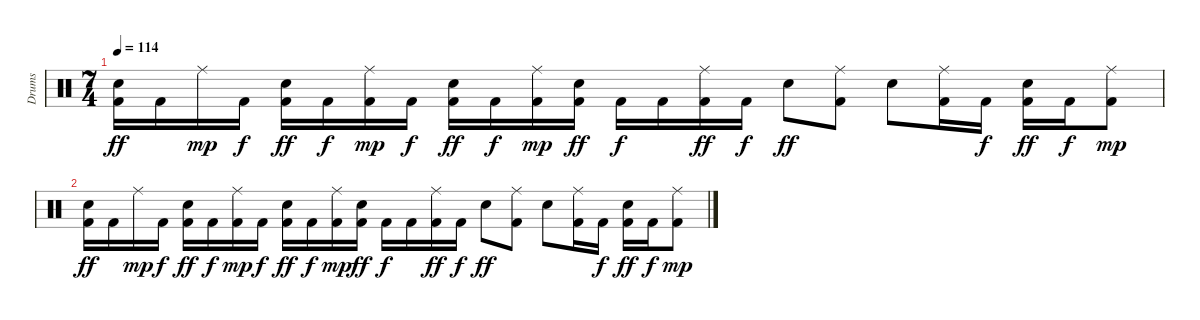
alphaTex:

\track ("Drums" "Drums") {instrument percussion}
\staff {score}
\articulation defaults
\ts (7 4)
\tempo 114
\clef neutral
\ks c
("Snare (hit) 2" "Kick (hit) 2").16{dy ff} "Kick (hit) 2".16 "Ride (middle)".16{dy mp} "Kick (hit) 2".16{dy f} ("Snare (hit) 2" "Kick (hit) 2").16{dy ff} "Kick (hit) 2".16{dy f} ("Ride (middle)" "Kick (hit) 2").16{dy mp} "Kick (hit) 2".16{dy f} ("Snare (hit) 2" "Kick (hit) 2").16{dy ff} "Kick (hit) 2".16{dy f} ("Ride (middle)" "Kick (hit) 2").16{dy mp} ("Snare (hit) 2" "Kick (hit) 2").16{dy ff} "Kick (hit) 2".16{dy f} "Kick (hit) 2".16 ("Ride (middle)" "Kick (hit) 2").16{dy ff} "Kick (hit) 2".16{dy f} "Snare (hit) 2".8{dy ff} ("Ride (middle)" "Kick (hit) 2").8 "Snare (hit) 2".8 ("Ride (middle)" "Kick (hit) 2").16 "Kick (hit) 2".16{dy f} ("Snare (hit) 2" "Kick (hit) 2").16{dy ff} "Kick (hit) 2".16{dy f} ("Ride (middle)" "Kick (hit) 2").8{dy mp} |
("Snare (hit) 2" "Kick (hit) 2").16{dy ff} "Kick (hit) 2".16 "Ride (middle)".16{dy mp} "Kick (hit) 2".16{dy f} ("Snare (hit) 2" "Kick (hit) 2").16{dy ff} "Kick (hit) 2".16{dy f} ("Ride (middle)" "Kick (hit) 2").16{dy mp} "Kick (hit) 2".16{dy f} ("Snare (hit) 2" "Kick (hit) 2").16{dy ff} "Kick (hit) 2".16{dy f} ("Ride (middle)" "Kick (hit) 2").16{dy mp} ("Snare (hit) 2" "Kick (hit) 2").16{dy ff} "Kick (hit) 2".16{dy f} "Kick (hit) 2".16 ("Ride (middle)" "Kick (hit) 2").16{dy ff} "Kick (hit) 2".16{dy f} "Snare (hit) 2".8{dy ff} ("Ride (middle)" "Kick (hit) 2").8 "Snare (hit) 2".8 ("Ride (middle)" "Kick (hit) 2").16 "Kick (hit) 2".16{dy f} ("Snare (hit) 2" "Kick (hit) 2").16{dy ff} "Kick (hit) 2".16{dy f} ("Ride (middle)" "Kick (hit) 2").8{dy mp}
